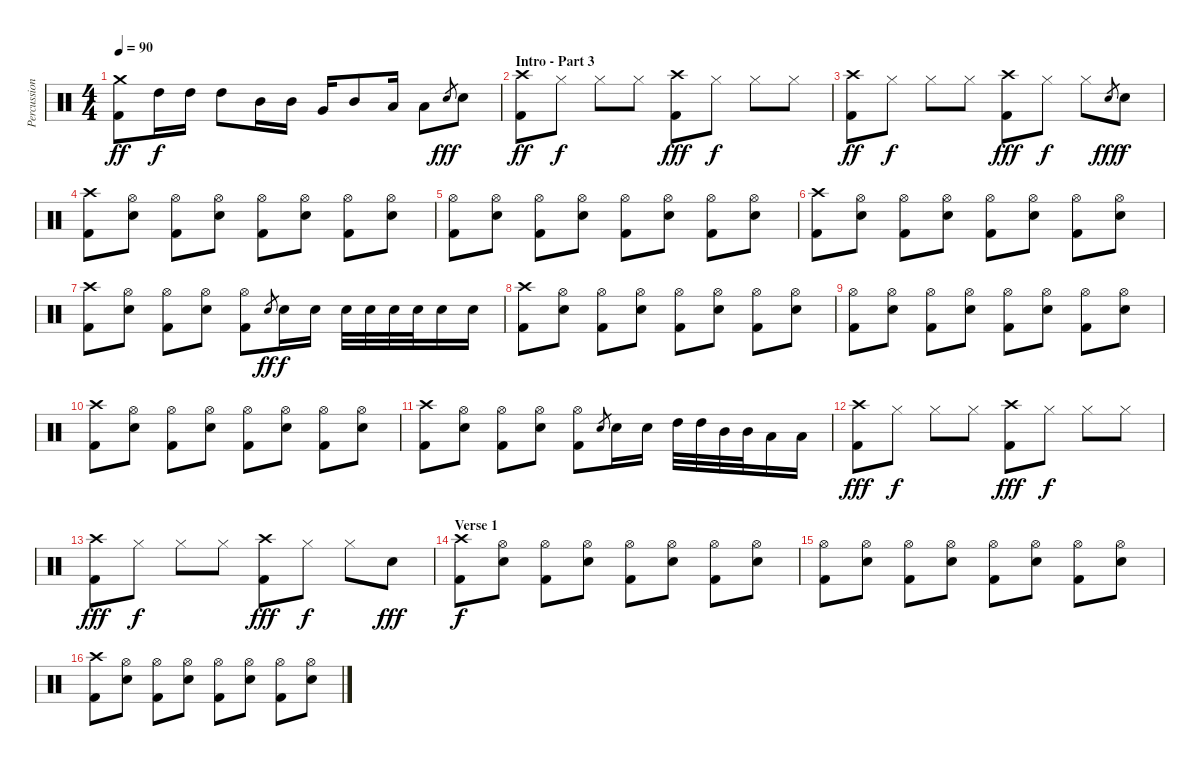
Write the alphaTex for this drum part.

\track ("Percussion" "Percussion") {instrument percussion}
\staff {score}
\articulation defaults
\ts (4 4)
\tempo 90
\clef neutral
\ks c
("Crash medium (hit)" "Kick (hit) 2").8{dy ff} "High Tom (hit)".16{dy f} "High Tom (hit)".16 "High Tom (hit)".8 "Mid Tom (hit)".16 "Mid Tom (hit)".16 "Very Low Tom (hit)".16 "Mid Tom (hit)".8 "Low Tom (hit)".16 "Low Tom (hit)".8 "Electric Snare (hit)".8{gr dy fff} "Electric Snare (hit)".8 |
\section ("" "Intro - Part 3")
("Crash high (hit)" "Kick (hit) 2").8{dy ff} "Hi-Hat (closed)".8{dy f} "Hi-Hat (closed)".8 "Hi-Hat (closed)".8 ("Crash high (hit)" "Kick (hit) 2").8{dy fff} "Hi-Hat (closed)".8{dy f} "Hi-Hat (closed)".8 "Hi-Hat (closed)".8 |
("Crash high (hit)" "Kick (hit) 2").8{dy ff} "Hi-Hat (closed)".8{dy f} "Hi-Hat (closed)".8 "Hi-Hat (closed)".8 ("Crash high (hit)" "Kick (hit) 2").8{dy fff} "Hi-Hat (closed)".8{dy f} "Hi-Hat (closed)".8 "Electric Snare (hit)".8{gr dy fff} "Electric Snare (hit)".8{dy f} |
("Crash high (hit)" "Kick (hit) 2").8 ("Hi-Hat (open)" "Electric Snare (hit)").8 ("Hi-Hat (open)" "Kick (hit) 2").8 ("Hi-Hat (open)" "Electric Snare (hit)").8 ("Hi-Hat (open)" "Kick (hit) 2").8 ("Hi-Hat (open)" "Electric Snare (hit)").8 ("Hi-Hat (open)" "Kick (hit) 2").8 ("Hi-Hat (open)" "Electric Snare (hit)").8 |
("Hi-Hat (open)" "Kick (hit) 2").8 ("Hi-Hat (open)" "Electric Snare (hit)").8 ("Hi-Hat (open)" "Kick (hit) 2").8 ("Hi-Hat (open)" "Electric Snare (hit)").8 ("Hi-Hat (open)" "Kick (hit) 2").8 ("Hi-Hat (open)" "Electric Snare (hit)").8 ("Hi-Hat (open)" "Kick (hit) 2").8 ("Hi-Hat (open)" "Electric Snare (hit)").8 |
("Crash high (hit)" "Kick (hit) 2").8 ("Hi-Hat (open)" "Electric Snare (hit)").8 ("Hi-Hat (open)" "Kick (hit) 2").8 ("Hi-Hat (open)" "Electric Snare (hit)").8 ("Hi-Hat (open)" "Kick (hit) 2").8 ("Hi-Hat (open)" "Electric Snare (hit)").8 ("Hi-Hat (open)" "Kick (hit) 2").8 ("Hi-Hat (open)" "Electric Snare (hit)").8 |
("Crash high (hit)" "Kick (hit) 2").8 ("Hi-Hat (open)" "Electric Snare (hit)").8 ("Hi-Hat (open)" "Kick (hit) 2").8 ("Hi-Hat (open)" "Electric Snare (hit)").8 ("Hi-Hat (open)" "Kick (hit) 2").8 "Electric Snare (hit)".8{gr dy ff} "Electric Snare (hit)".16{dy f} "Electric Snare (hit)".16 "Electric Snare (hit)".32 "Electric Snare (hit)".32 "Electric Snare (hit)".32 "Electric Snare (hit)".32 "Electric Snare (hit)".16 "Electric Snare (hit)".16 |
("Crash high (hit)" "Kick (hit) 2").8 ("Hi-Hat (open)" "Electric Snare (hit)").8 ("Hi-Hat (open)" "Kick (hit) 2").8 ("Hi-Hat (open)" "Electric Snare (hit)").8 ("Hi-Hat (open)" "Kick (hit) 2").8 ("Hi-Hat (open)" "Electric Snare (hit)").8 ("Hi-Hat (open)" "Kick (hit) 2").8 ("Hi-Hat (open)" "Electric Snare (hit)").8 |
("Hi-Hat (open)" "Kick (hit) 2").8 ("Hi-Hat (open)" "Electric Snare (hit)").8 ("Hi-Hat (open)" "Kick (hit) 2").8 ("Hi-Hat (open)" "Electric Snare (hit)").8 ("Hi-Hat (open)" "Kick (hit) 2").8 ("Hi-Hat (open)" "Electric Snare (hit)").8 ("Hi-Hat (open)" "Kick (hit) 2").8 ("Hi-Hat (open)" "Electric Snare (hit)").8 |
("Crash high (hit)" "Kick (hit) 2").8 ("Hi-Hat (open)" "Electric Snare (hit)").8 ("Hi-Hat (open)" "Kick (hit) 2").8 ("Hi-Hat (open)" "Electric Snare (hit)").8 ("Hi-Hat (open)" "Kick (hit) 2").8 ("Hi-Hat (open)" "Electric Snare (hit)").8 ("Hi-Hat (open)" "Kick (hit) 2").8 ("Hi-Hat (open)" "Electric Snare (hit)").8 |
("Crash high (hit)" "Kick (hit) 2").8 ("Hi-Hat (open)" "Electric Snare (hit)").8 ("Hi-Hat (open)" "Kick (hit) 2").8 ("Hi-Hat (open)" "Electric Snare (hit)").8 ("Hi-Hat (open)" "Kick (hit) 2").8 "Electric Snare (hit)"{h}.8{gr} "Electric Snare (hit)".16 "Electric Snare (hit)".16 "High Tom (hit)".32 "High Tom (hit)".32 "Mid Tom (hit)".32 "Mid Tom (hit)".32 "Low Tom (hit)".16 "Low Tom (hit)".16 |
("Crash high (hit)" "Kick (hit) 2").8{dy fff} "Hi-Hat (closed)".8{dy f} "Hi-Hat (closed)".8 "Hi-Hat (closed)".8 ("Crash high (hit)" "Kick (hit) 2").8{dy fff} "Hi-Hat (closed)".8{dy f} "Hi-Hat (closed)".8 "Hi-Hat (closed)".8 |
("Crash high (hit)" "Kick (hit) 2").8{dy fff} "Hi-Hat (closed)".8{dy f} "Hi-Hat (closed)".8 "Hi-Hat (closed)".8 ("Crash high (hit)" "Kick (hit) 2").8{dy fff} "Hi-Hat (closed)".8{dy f} "Hi-Hat (closed)".8 "Electric Snare (hit)".8{dy fff} |
\section ("" "Verse 1")
("Crash high (hit)" "Kick (hit) 2").8{dy f} ("Hi-Hat (open)" "Electric Snare (hit)").8 ("Hi-Hat (open)" "Kick (hit) 2").8 ("Hi-Hat (open)" "Electric Snare (hit)").8 ("Hi-Hat (open)" "Kick (hit) 2").8 ("Hi-Hat (open)" "Electric Snare (hit)").8 ("Hi-Hat (open)" "Kick (hit) 2").8 ("Hi-Hat (open)" "Electric Snare (hit)").8 |
("Hi-Hat (open)" "Kick (hit) 2").8 ("Hi-Hat (open)" "Electric Snare (hit)").8 ("Hi-Hat (open)" "Kick (hit) 2").8 ("Hi-Hat (open)" "Electric Snare (hit)").8 ("Hi-Hat (open)" "Kick (hit) 2").8 ("Hi-Hat (open)" "Electric Snare (hit)").8 ("Hi-Hat (open)" "Kick (hit) 2").8 ("Hi-Hat (open)" "Electric Snare (hit)").8 |
("Crash high (hit)" "Kick (hit) 2").8 ("Hi-Hat (open)" "Electric Snare (hit)").8 ("Hi-Hat (open)" "Kick (hit) 2").8 ("Hi-Hat (open)" "Electric Snare (hit)").8 ("Hi-Hat (open)" "Kick (hit) 2").8 ("Hi-Hat (open)" "Electric Snare (hit)").8 ("Hi-Hat (open)" "Kick (hit) 2").8 ("Hi-Hat (open)" "Electric Snare (hit)").8
